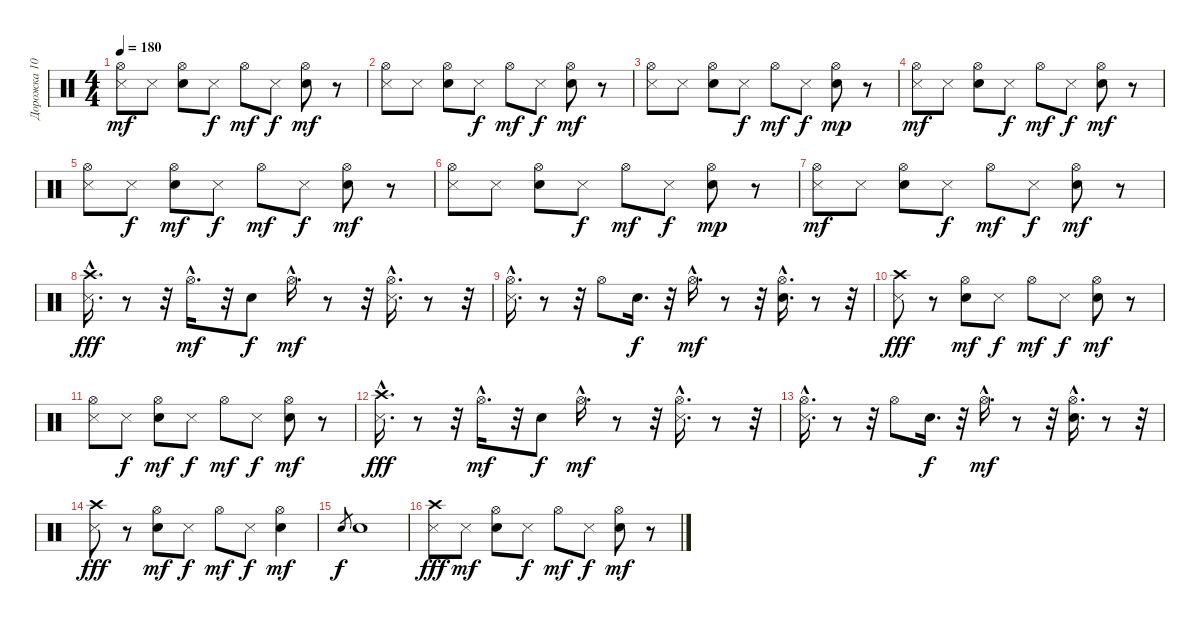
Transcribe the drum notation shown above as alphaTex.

\track ("Дорожка 10" "Дорожка 10") {instrument percussion}
\staff {score}
\articulation defaults
\ts (4 4)
\tempo 180
\clef neutral
\ks c
("Hi-Hat (open)" "Metronome (hit)").8{dy mf} "Metronome (hit)".8 ("Hi-Hat (open)" "Snare (hit) 2").8 "Metronome (hit)".8{dy f} "Hi-Hat (open)".8{dy mf} "Metronome (hit)".8{dy f} ("Hi-Hat (open)" "Snare (hit) 2").8{dy mf} r.8 |
("Hi-Hat (open)" "Metronome (hit)").8 "Metronome (hit)".8 ("Hi-Hat (open)" "Snare (hit) 2").8 "Metronome (hit)".8{dy f} "Hi-Hat (open)".8{dy mf} "Metronome (hit)".8{dy f} ("Hi-Hat (open)" "Snare (hit) 2").8{dy mf} r.8 |
("Hi-Hat (open)" "Metronome (hit)").8 "Metronome (hit)".8 ("Hi-Hat (open)" "Snare (hit) 2").8 "Metronome (hit)".8{dy f} "Hi-Hat (open)".8{dy mf} "Metronome (hit)".8{dy f} ("Hi-Hat (open)" "Snare (hit) 2").8{dy mp} r.8 |
("Hi-Hat (open)" "Metronome (hit)").8{dy mf} "Metronome (hit)".8 ("Hi-Hat (open)" "Snare (hit) 2").8 "Metronome (hit)".8{dy f} "Hi-Hat (open)".8{dy mf} "Metronome (hit)".8{dy f} ("Hi-Hat (open)" "Snare (hit) 2").8{dy mf} r.8 |
("Hi-Hat (open)" "Metronome (hit)").8 "Metronome (hit)".8{dy f} ("Hi-Hat (open)" "Snare (hit) 2").8{dy mf} "Metronome (hit)".8{dy f} "Hi-Hat (open)".8{dy mf} "Metronome (hit)".8{dy f} ("Hi-Hat (open)" "Snare (hit) 2").8{dy mf} r.8 |
("Hi-Hat (open)" "Metronome (hit)").8 "Metronome (hit)".8 ("Hi-Hat (open)" "Snare (hit) 2").8 "Metronome (hit)".8{dy f} "Hi-Hat (open)".8{dy mf} "Metronome (hit)".8{dy f} ("Hi-Hat (open)" "Snare (hit) 2").8{dy mp} r.8 |
("Hi-Hat (open)" "Metronome (hit)").8{dy mf} "Metronome (hit)".8 ("Hi-Hat (open)" "Snare (hit) 2").8 "Metronome (hit)".8{dy f} "Hi-Hat (open)".8{dy mf} "Metronome (hit)".8{dy f} ("Hi-Hat (open)" "Snare (hit) 2").8{dy mf} r.8 |
("Metronome (hit)"{hac} "Crash high (hit)").16{d dy fff} r.8 r.32 "Hi-Hat (open)"{hac}.16{d dy mf} r.32 "Snare (hit) 2".8{dy f} "Hi-Hat (open)"{hac}.16{d dy mf} r.8 r.32 ("Hi-Hat (open)"{hac} "Metronome (hit)").16{d} r.8 r.32 |
("Hi-Hat (open)"{hac} "Metronome (hit)"{hac}).16{d} r.8 r.32 "Hi-Hat (open)".8 "Snare (hit) 2".16{d dy f} r.32 "Hi-Hat (open)"{hac}.16{d dy mf} r.8 r.32 ("Snare (hit) 2"{hac} "Hi-Hat (open)"{hac}).16{d} r.8 r.32 |
("Crash high (hit)" "Metronome (hit)").8{dy fff} r.8 ("Hi-Hat (open)" "Snare (hit) 2").8{dy mf} "Metronome (hit)".8{dy f} "Hi-Hat (open)".8{dy mf} "Metronome (hit)".8{dy f} ("Hi-Hat (open)" "Snare (hit) 2").8{dy mf} r.8 |
("Hi-Hat (open)" "Metronome (hit)").8 "Metronome (hit)".8{dy f} ("Hi-Hat (open)" "Snare (hit) 2").8{dy mf} "Metronome (hit)".8{dy f} "Hi-Hat (open)".8{dy mf} "Metronome (hit)".8{dy f} ("Hi-Hat (open)" "Snare (hit) 2").8{dy mf} r.8 |
("Metronome (hit)"{hac} "Crash high (hit)").16{d dy fff} r.8 r.32 "Hi-Hat (open)"{hac}.16{d dy mf} r.32 "Snare (hit) 2".8{dy f} "Hi-Hat (open)"{hac}.16{d dy mf} r.8 r.32 ("Hi-Hat (open)"{hac} "Metronome (hit)").16{d} r.8 r.32 |
("Hi-Hat (open)"{hac} "Metronome (hit)"{hac}).16{d} r.8 r.32 "Hi-Hat (open)".8 "Snare (hit) 2".16{d dy f} r.32 "Hi-Hat (open)"{hac}.16{d dy mf} r.8 r.32 ("Snare (hit) 2"{hac} "Hi-Hat (open)"{hac}).16{d} r.8 r.32 |
("Crash high (hit)" "Metronome (hit)").8{dy fff} r.8 ("Hi-Hat (open)" "Snare (hit) 2").8{dy mf} "Metronome (hit)".8{dy f} "Hi-Hat (open)".8{dy mf} "Metronome (hit)".8{dy f} ("Hi-Hat (open)" "Snare (hit) 2").4{dy mf} |
"Electric Snare (hit)".8{gr dy f} "Electric Snare (hit)".1 |
("Crash high (hit)" "Metronome (hit)").8{dy fff} "Metronome (hit)".8{dy mf} ("Hi-Hat (open)" "Snare (hit) 2").8 "Metronome (hit)".8{dy f} "Hi-Hat (open)".8{dy mf} "Metronome (hit)".8{dy f} ("Hi-Hat (open)" "Snare (hit) 2").8{dy mf} r.8
